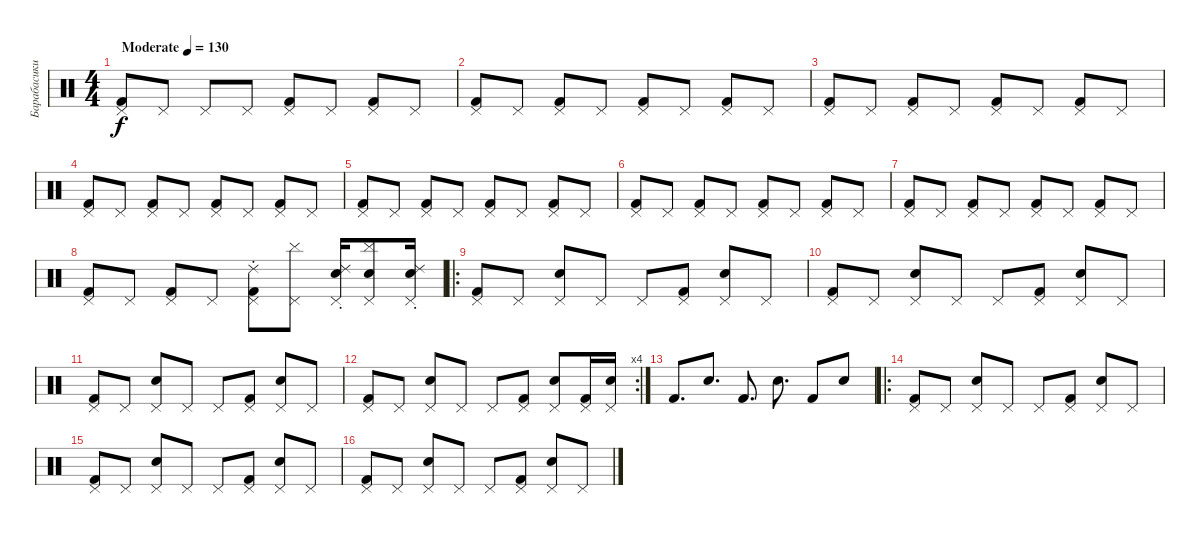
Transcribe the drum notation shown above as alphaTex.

\track ("Барабасики" "Барабасики") {instrument percussion}
\staff {score}
\articulation defaults
\ts (4 4)
\tempo (130 "Moderate")
\clef neutral
\ks c
("Pedal Hi-Hat (hit)" "Kick (hit) 2").8{dy f} "Pedal Hi-Hat (hit)".8 "Pedal Hi-Hat (hit)".8 "Pedal Hi-Hat (hit)".8 ("Pedal Hi-Hat (hit)" "Kick (hit) 2").8 "Pedal Hi-Hat (hit)".8 ("Pedal Hi-Hat (hit)" "Kick (hit) 2").8 "Pedal Hi-Hat (hit)".8 |
("Pedal Hi-Hat (hit)" "Kick (hit) 2").8 "Pedal Hi-Hat (hit)".8 ("Pedal Hi-Hat (hit)" "Kick (hit) 2").8 "Pedal Hi-Hat (hit)".8 ("Pedal Hi-Hat (hit)" "Kick (hit) 2").8 "Pedal Hi-Hat (hit)".8 ("Pedal Hi-Hat (hit)" "Kick (hit) 2").8 "Pedal Hi-Hat (hit)".8 |
("Pedal Hi-Hat (hit)" "Kick (hit) 2").8 "Pedal Hi-Hat (hit)".8 ("Pedal Hi-Hat (hit)" "Kick (hit) 2").8 "Pedal Hi-Hat (hit)".8 ("Pedal Hi-Hat (hit)" "Kick (hit) 2").8 "Pedal Hi-Hat (hit)".8 ("Pedal Hi-Hat (hit)" "Kick (hit) 2").8 "Pedal Hi-Hat (hit)".8 |
("Pedal Hi-Hat (hit)" "Kick (hit) 2").8 "Pedal Hi-Hat (hit)".8 ("Pedal Hi-Hat (hit)" "Kick (hit) 2").8 "Pedal Hi-Hat (hit)".8 ("Pedal Hi-Hat (hit)" "Kick (hit) 2").8 "Pedal Hi-Hat (hit)".8 ("Pedal Hi-Hat (hit)" "Kick (hit) 2").8 "Pedal Hi-Hat (hit)".8 |
("Pedal Hi-Hat (hit)" "Kick (hit) 2").8 "Pedal Hi-Hat (hit)".8 ("Pedal Hi-Hat (hit)" "Kick (hit) 2").8 "Pedal Hi-Hat (hit)".8 ("Pedal Hi-Hat (hit)" "Kick (hit) 2").8 "Pedal Hi-Hat (hit)".8 ("Pedal Hi-Hat (hit)" "Kick (hit) 2").8 "Pedal Hi-Hat (hit)".8 |
("Pedal Hi-Hat (hit)" "Kick (hit) 2").8 "Pedal Hi-Hat (hit)".8 ("Pedal Hi-Hat (hit)" "Kick (hit) 2").8 "Pedal Hi-Hat (hit)".8 ("Pedal Hi-Hat (hit)" "Kick (hit) 2").8 "Pedal Hi-Hat (hit)".8 ("Pedal Hi-Hat (hit)" "Kick (hit) 2").8 "Pedal Hi-Hat (hit)".8 |
("Pedal Hi-Hat (hit)" "Kick (hit) 2").8 "Pedal Hi-Hat (hit)".8 ("Pedal Hi-Hat (hit)" "Kick (hit) 2").8 "Pedal Hi-Hat (hit)".8 ("Pedal Hi-Hat (hit)" "Kick (hit) 2").8 "Pedal Hi-Hat (hit)".8 ("Pedal Hi-Hat (hit)" "Kick (hit) 2").8 "Pedal Hi-Hat (hit)".8 |
("Pedal Hi-Hat (hit)" "Kick (hit) 2").8 "Pedal Hi-Hat (hit)".8 ("Pedal Hi-Hat (hit)" "Kick (hit) 2").8 "Pedal Hi-Hat (hit)".8 ("Pedal Hi-Hat (hit)" "Kick (hit) 2" "Ride (choke) 2").8 ("Pedal Hi-Hat (hit)" "Cymbal (hit)").8 ("Pedal Hi-Hat (hit)" "Electric Snare (hit)" "Ride (choke) 2").16 ("Pedal Hi-Hat (hit)" "Electric Snare (hit)" "Cymbal (hit)").8 ("Pedal Hi-Hat (hit)" "Electric Snare (hit)" "Ride (choke) 2").16 |
\ro
("Pedal Hi-Hat (hit)" "Kick (hit) 2").8 "Pedal Hi-Hat (hit)".8 ("Pedal Hi-Hat (hit)" "Electric Snare (hit)").8 "Pedal Hi-Hat (hit)".8 "Pedal Hi-Hat (hit)".8 ("Pedal Hi-Hat (hit)" "Kick (hit) 2").8 ("Pedal Hi-Hat (hit)" "Electric Snare (hit)").8 "Pedal Hi-Hat (hit)".8 |
("Pedal Hi-Hat (hit)" "Kick (hit) 2").8 "Pedal Hi-Hat (hit)".8 ("Pedal Hi-Hat (hit)" "Electric Snare (hit)").8 "Pedal Hi-Hat (hit)".8 "Pedal Hi-Hat (hit)".8 ("Pedal Hi-Hat (hit)" "Kick (hit) 2").8 ("Pedal Hi-Hat (hit)" "Electric Snare (hit)").8 "Pedal Hi-Hat (hit)".8 |
("Pedal Hi-Hat (hit)" "Kick (hit) 2").8 "Pedal Hi-Hat (hit)".8 ("Pedal Hi-Hat (hit)" "Electric Snare (hit)").8 "Pedal Hi-Hat (hit)".8 "Pedal Hi-Hat (hit)".8 ("Pedal Hi-Hat (hit)" "Kick (hit) 2").8 ("Pedal Hi-Hat (hit)" "Electric Snare (hit)").8 "Pedal Hi-Hat (hit)".8 |
\rc 4
("Pedal Hi-Hat (hit)" "Kick (hit) 2").8 "Pedal Hi-Hat (hit)".8 ("Pedal Hi-Hat (hit)" "Electric Snare (hit)").8 "Pedal Hi-Hat (hit)".8 "Pedal Hi-Hat (hit)".8 ("Pedal Hi-Hat (hit)" "Kick (hit) 2").8 ("Pedal Hi-Hat (hit)" "Electric Snare (hit)").8 ("Pedal Hi-Hat (hit)" "Kick (hit) 2").16 ("Pedal Hi-Hat (hit)" "Electric Snare (hit)").16 |
"Kick (hit) 2".8{d} "Electric Snare (hit)".8{d} "Kick (hit) 2".8{d} "Electric Snare (hit)".8{d} "Kick (hit) 2".8 "Electric Snare (hit)".8 |
\ro
("Pedal Hi-Hat (hit)" "Kick (hit) 2").8 "Pedal Hi-Hat (hit)".8 ("Pedal Hi-Hat (hit)" "Electric Snare (hit)").8 "Pedal Hi-Hat (hit)".8 "Pedal Hi-Hat (hit)".8 ("Pedal Hi-Hat (hit)" "Kick (hit) 2").8 ("Pedal Hi-Hat (hit)" "Electric Snare (hit)").8 "Pedal Hi-Hat (hit)".8 |
("Pedal Hi-Hat (hit)" "Kick (hit) 2").8 "Pedal Hi-Hat (hit)".8 ("Pedal Hi-Hat (hit)" "Electric Snare (hit)").8 "Pedal Hi-Hat (hit)".8 "Pedal Hi-Hat (hit)".8 ("Pedal Hi-Hat (hit)" "Kick (hit) 2").8 ("Pedal Hi-Hat (hit)" "Electric Snare (hit)").8 "Pedal Hi-Hat (hit)".8 |
("Pedal Hi-Hat (hit)" "Kick (hit) 2").8 "Pedal Hi-Hat (hit)".8 ("Pedal Hi-Hat (hit)" "Electric Snare (hit)").8 "Pedal Hi-Hat (hit)".8 "Pedal Hi-Hat (hit)".8 ("Pedal Hi-Hat (hit)" "Kick (hit) 2").8 ("Pedal Hi-Hat (hit)" "Electric Snare (hit)").8 "Pedal Hi-Hat (hit)".8
